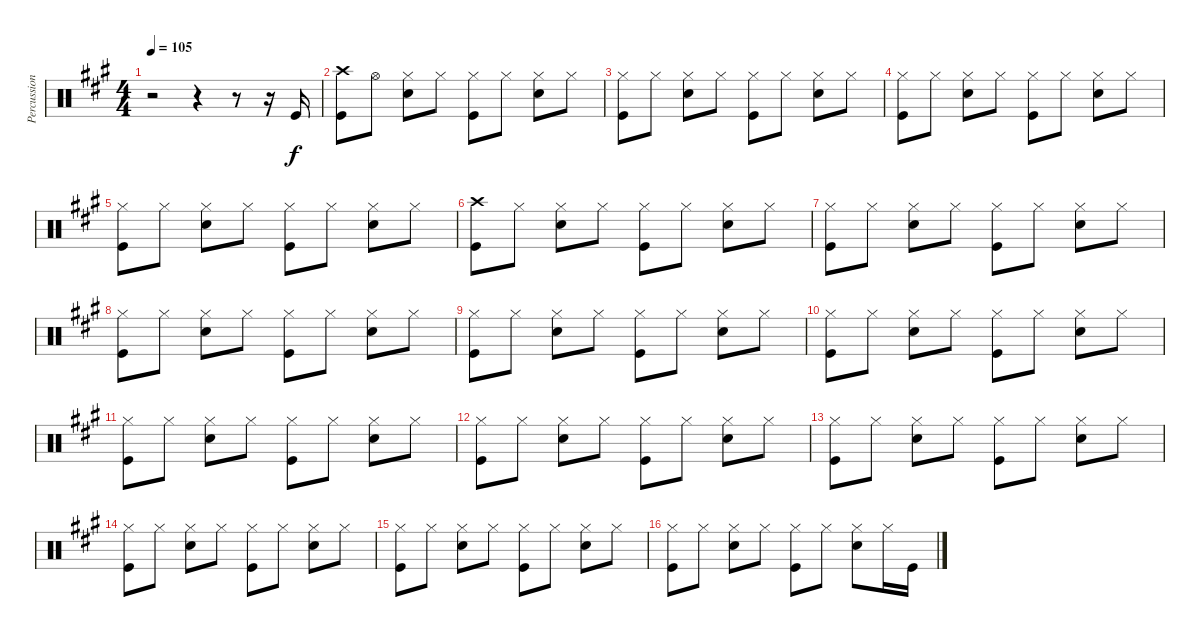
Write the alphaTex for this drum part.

\track ("Percussion" "Percussion") {instrument percussion}
\staff {score}
\articulation defaults
\ts (4 4)
\tempo 105
\clef neutral
\ks a
r.2{dy f} r.4 r.8 r.16 "Kick (hit)".16 |
("Crash high (hit)" "Kick (hit)").8 "Hi-Hat (open)".8 ("Hi-Hat (closed)" "Snare (hit) 2").8 "Hi-Hat (closed)".8 ("Hi-Hat (closed)" "Kick (hit)").8 "Hi-Hat (closed)".8 ("Hi-Hat (closed)" "Snare (hit) 2").8 "Hi-Hat (closed)".8 |
("Hi-Hat (closed)" "Kick (hit)").8 "Hi-Hat (closed)".8 ("Hi-Hat (closed)" "Snare (hit) 2").8 "Hi-Hat (closed)".8 ("Hi-Hat (closed)" "Kick (hit)").8 "Hi-Hat (closed)".8 ("Hi-Hat (closed)" "Snare (hit) 2").8 "Hi-Hat (closed)".8 |
("Hi-Hat (closed)" "Kick (hit)").8 "Hi-Hat (closed)".8 ("Hi-Hat (closed)" "Snare (hit) 2").8 "Hi-Hat (closed)".8 ("Hi-Hat (closed)" "Kick (hit)").8 "Hi-Hat (closed)".8 ("Hi-Hat (closed)" "Snare (hit) 2").8 "Hi-Hat (closed)".8 |
("Hi-Hat (closed)" "Kick (hit)").8 "Hi-Hat (closed)".8 ("Hi-Hat (closed)" "Snare (hit) 2").8 "Hi-Hat (closed)".8 ("Hi-Hat (closed)" "Kick (hit)").8 "Hi-Hat (closed)".8 ("Hi-Hat (closed)" "Snare (hit) 2").8 "Hi-Hat (closed)".8 |
("Crash high (hit)" "Kick (hit)").8 "Hi-Hat (closed)".8 ("Hi-Hat (closed)" "Snare (hit) 2").8 "Hi-Hat (closed)".8 ("Hi-Hat (closed)" "Kick (hit)").8 "Hi-Hat (closed)".8 ("Hi-Hat (closed)" "Snare (hit) 2").8 "Hi-Hat (closed)".8 |
("Hi-Hat (closed)" "Kick (hit)").8 "Hi-Hat (closed)".8 ("Hi-Hat (closed)" "Snare (hit) 2").8 "Hi-Hat (closed)".8 ("Hi-Hat (closed)" "Kick (hit)").8 "Hi-Hat (closed)".8 ("Hi-Hat (closed)" "Snare (hit) 2").8 "Hi-Hat (closed)".8 |
("Hi-Hat (closed)" "Kick (hit)").8 "Hi-Hat (closed)".8 ("Hi-Hat (closed)" "Snare (hit) 2").8 "Hi-Hat (closed)".8 ("Hi-Hat (closed)" "Kick (hit)").8 "Hi-Hat (closed)".8 ("Hi-Hat (closed)" "Snare (hit) 2").8 "Hi-Hat (closed)".8 |
("Hi-Hat (closed)" "Kick (hit)").8 "Hi-Hat (closed)".8 ("Hi-Hat (closed)" "Snare (hit) 2").8 "Hi-Hat (closed)".8 ("Hi-Hat (closed)" "Kick (hit)").8 "Hi-Hat (closed)".8 ("Hi-Hat (closed)" "Snare (hit) 2").8 "Hi-Hat (closed)".8 |
("Hi-Hat (closed)" "Kick (hit)").8 "Hi-Hat (closed)".8 ("Hi-Hat (closed)" "Snare (hit) 2").8 "Hi-Hat (closed)".8 ("Hi-Hat (closed)" "Kick (hit)").8 "Hi-Hat (closed)".8 ("Hi-Hat (closed)" "Snare (hit) 2").8 "Hi-Hat (closed)".8 |
("Hi-Hat (closed)" "Kick (hit)").8 "Hi-Hat (closed)".8 ("Hi-Hat (closed)" "Snare (hit) 2").8 "Hi-Hat (closed)".8 ("Hi-Hat (closed)" "Kick (hit)").8 "Hi-Hat (closed)".8 ("Hi-Hat (closed)" "Snare (hit) 2").8 "Hi-Hat (closed)".8 |
("Hi-Hat (closed)" "Kick (hit)").8 "Hi-Hat (closed)".8 ("Hi-Hat (closed)" "Snare (hit) 2").8 "Hi-Hat (closed)".8 ("Hi-Hat (closed)" "Kick (hit)").8 "Hi-Hat (closed)".8 ("Hi-Hat (closed)" "Snare (hit) 2").8 "Hi-Hat (closed)".8 |
("Hi-Hat (closed)" "Kick (hit)").8 "Hi-Hat (closed)".8 ("Hi-Hat (closed)" "Snare (hit) 2").8 "Hi-Hat (closed)".8 ("Hi-Hat (closed)" "Kick (hit)").8 "Hi-Hat (closed)".8 ("Hi-Hat (closed)" "Snare (hit) 2").8 "Hi-Hat (closed)".8 |
("Hi-Hat (closed)" "Kick (hit)").8 "Hi-Hat (closed)".8 ("Hi-Hat (closed)" "Snare (hit) 2").8 "Hi-Hat (closed)".8 ("Hi-Hat (closed)" "Kick (hit)").8 "Hi-Hat (closed)".8 ("Hi-Hat (closed)" "Snare (hit) 2").8 "Hi-Hat (closed)".8 |
("Hi-Hat (closed)" "Kick (hit)").8 "Hi-Hat (closed)".8 ("Hi-Hat (closed)" "Snare (hit) 2").8 "Hi-Hat (closed)".8 ("Hi-Hat (closed)" "Kick (hit)").8 "Hi-Hat (closed)".8 ("Hi-Hat (closed)" "Snare (hit) 2").8 "Hi-Hat (closed)".8 |
("Hi-Hat (closed)" "Kick (hit)").8 "Hi-Hat (closed)".8 ("Hi-Hat (closed)" "Snare (hit) 2").8 "Hi-Hat (closed)".8 ("Hi-Hat (closed)" "Kick (hit)").8 "Hi-Hat (closed)".8 ("Hi-Hat (closed)" "Snare (hit) 2").8 "Hi-Hat (closed)".16 "Kick (hit)".16
